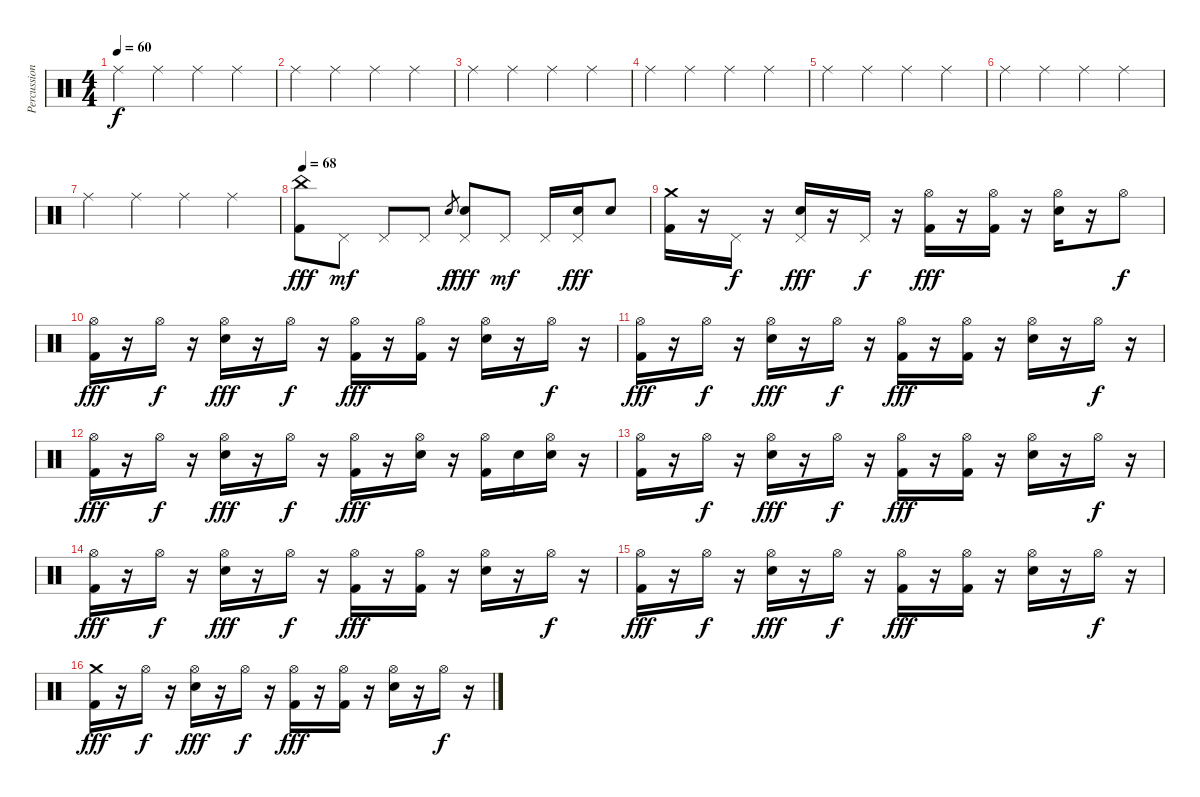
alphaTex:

\track ("Percussions" "Percussion") {instrument percussion}
\staff {score}
\articulation defaults
\ts (4 4)
\tempo 60
\clef neutral
\ks c "Ride (middle)".4{dy f} "Ride (middle)".4 "Ride (middle)".4 "Ride (middle)".4
|
"Ride (middle)".4 "Ride (middle)".4 "Ride (middle)".4 "Ride (middle)".4 |
"Ride (middle)".4 "Ride (middle)".4 "Ride (middle)".4 "Ride (middle)".4 |
"Ride (middle)".4 "Ride (middle)".4 "Ride (middle)".4 "Ride (middle)".4 |
"Ride (middle)".4 "Ride (middle)".4 "Ride (middle)".4 "Ride (middle)".4 |
"Ride (middle)".4 "Ride (middle)".4 "Ride (middle)".4 "Ride (middle)".4 |
"Ride (middle)".4 "Ride (middle)".4 "Ride (middle)".4 "Ride (middle)".4 |
\tempo 68
("China (hit)" "Kick (hit) 2").8{dy fff} "Pedal Hi-Hat (hit)".8{dy mf} "Pedal Hi-Hat (hit)".8 "Pedal Hi-Hat (hit)".8 "Electric Snare (hit)".8{gr dy f} ("Pedal Hi-Hat (hit)" "Electric Snare (hit)").8{dy fff} "Pedal Hi-Hat (hit)".8{dy mf} "Pedal Hi-Hat (hit)".16 ("Pedal Hi-Hat (hit)" "Electric Snare (hit)").16{dy fff} "Electric Snare (hit)".8 |
("Crash medium (hit)" "Kick (hit) 2").16 r.16 "Pedal Hi-Hat (hit)".16{dy f} r.16 ("Pedal Hi-Hat (hit)" "Electric Snare (hit)").16{dy fff} r.16 "Pedal Hi-Hat (hit)".16{dy f} r.16 ("Hi-Hat (open)" "Kick (hit) 2").16{dy fff} r.16 ("Hi-Hat (open)" "Kick (hit) 2").16 r.16 ("Hi-Hat (open)" "Electric Snare (hit)").16 r.16 "Hi-Hat (open)".8{dy f} |
("Hi-Hat (open)" "Kick (hit) 2").16{dy fff} r.16 "Hi-Hat (open)".16{dy f} r.16 ("Hi-Hat (open)" "Electric Snare (hit)").16{dy fff} r.16 "Hi-Hat (open)".16{dy f} r.16 ("Hi-Hat (open)" "Kick (hit) 2").16{dy fff} r.16 ("Hi-Hat (open)" "Kick (hit) 2").16 r.16 ("Hi-Hat (open)" "Electric Snare (hit)").16 r.16 "Hi-Hat (open)".16{dy f} r.16 |
("Hi-Hat (open)" "Kick (hit) 2").16{dy fff} r.16 "Hi-Hat (open)".16{dy f} r.16 ("Hi-Hat (open)" "Electric Snare (hit)").16{dy fff} r.16 "Hi-Hat (open)".16{dy f} r.16 ("Hi-Hat (open)" "Kick (hit) 2").16{dy fff} r.16 ("Hi-Hat (open)" "Kick (hit) 2").16 r.16 ("Hi-Hat (open)" "Electric Snare (hit)").16 r.16 "Hi-Hat (open)".16{dy f} r.16 |
("Hi-Hat (open)" "Kick (hit) 2").16{dy fff} r.16 "Hi-Hat (open)".16{dy f} r.16 ("Hi-Hat (open)" "Electric Snare (hit)").16{dy fff} r.16 "Hi-Hat (open)".16{dy f} r.16 ("Hi-Hat (open)" "Kick (hit) 2").16{dy fff} r.16 ("Hi-Hat (open)" "Electric Snare (hit)").16 r.16 ("Hi-Hat (open)" "Kick (hit) 2").16 "Electric Snare (hit)".16 ("Hi-Hat (open)" "Electric Snare (hit)").16 r.16 |
("Hi-Hat (open)" "Kick (hit) 2").16 r.16 "Hi-Hat (open)".16{dy f} r.16 ("Hi-Hat (open)" "Electric Snare (hit)").16{dy fff} r.16 "Hi-Hat (open)".16{dy f} r.16 ("Hi-Hat (open)" "Kick (hit) 2").16{dy fff} r.16 ("Hi-Hat (open)" "Kick (hit) 2").16 r.16 ("Hi-Hat (open)" "Electric Snare (hit)").16 r.16 "Hi-Hat (open)".16{dy f} r.16 |
("Hi-Hat (open)" "Kick (hit) 2").16{dy fff} r.16 "Hi-Hat (open)".16{dy f} r.16 ("Hi-Hat (open)" "Electric Snare (hit)").16{dy fff} r.16 "Hi-Hat (open)".16{dy f} r.16 ("Hi-Hat (open)" "Kick (hit) 2").16{dy fff} r.16 ("Hi-Hat (open)" "Kick (hit) 2").16 r.16 ("Hi-Hat (open)" "Electric Snare (hit)").16 r.16 "Hi-Hat (open)".16{dy f} r.16 |
("Hi-Hat (open)" "Kick (hit) 2").16{dy fff} r.16 "Hi-Hat (open)".16{dy f} r.16 ("Hi-Hat (open)" "Electric Snare (hit)").16{dy fff} r.16 "Hi-Hat (open)".16{dy f} r.16 ("Hi-Hat (open)" "Kick (hit) 2").16{dy fff} r.16 ("Hi-Hat (open)" "Kick (hit) 2").16 r.16 ("Hi-Hat (open)" "Electric Snare (hit)").16 r.16 "Hi-Hat (open)".16{dy f} r.16 |
("Crash medium (hit)" "Kick (hit) 2").16{dy fff} r.16 "Hi-Hat (open)".16{dy f} r.16 ("Hi-Hat (open)" "Electric Snare (hit)").16{dy fff} r.16 "Hi-Hat (open)".16{dy f} r.16 ("Hi-Hat (open)" "Kick (hit) 2").16{dy fff} r.16 ("Hi-Hat (open)" "Kick (hit) 2").16 r.16 ("Hi-Hat (open)" "Electric Snare (hit)").16 r.16 "Hi-Hat (open)".16{dy f} r.16
